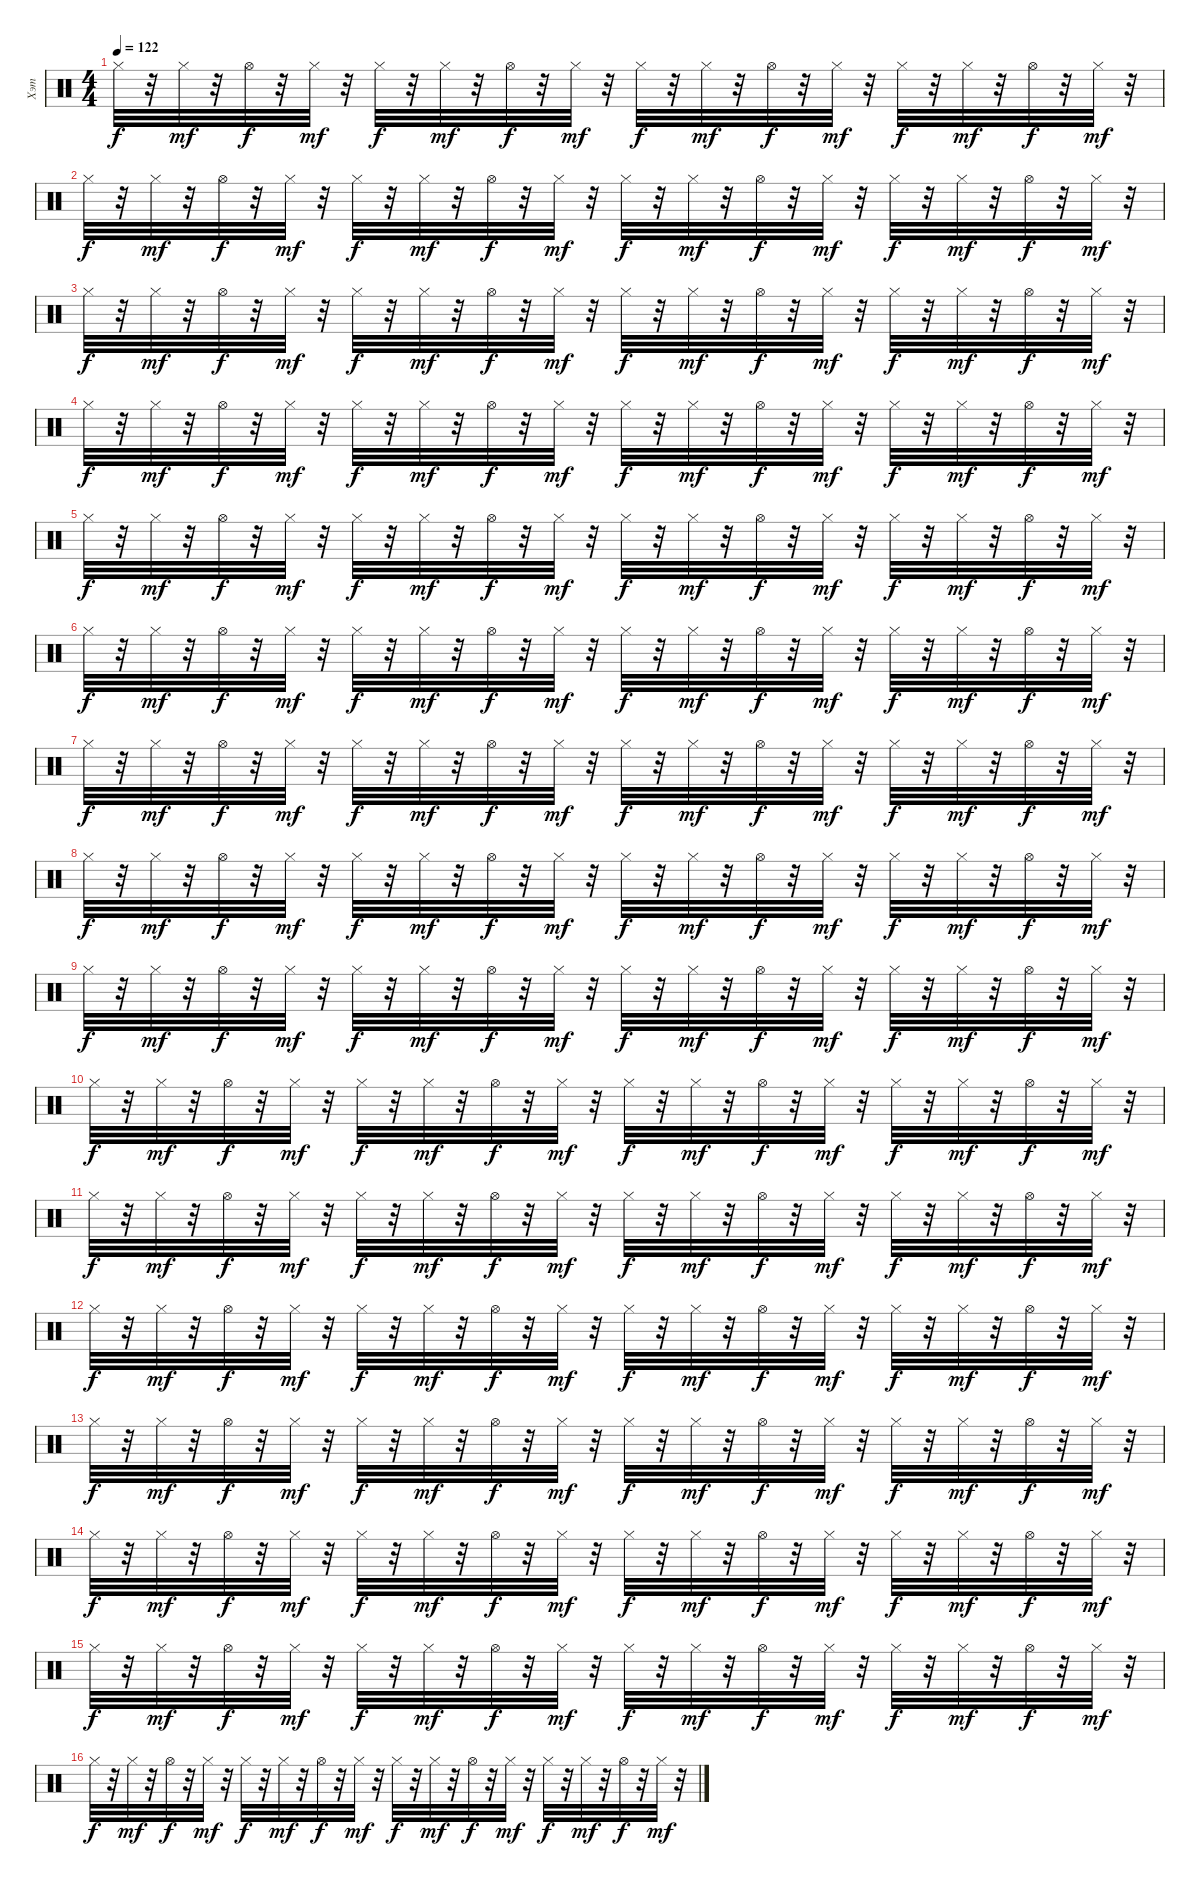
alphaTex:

\track ("Хэт" "Хэт") {instrument percussion}
\staff {score}
\articulation defaults
\ts (4 4)
\tempo 122
\clef neutral
\ks c "Hi-Hat (closed)".32{dy f}
r.32 "Hi-Hat (closed)".32{dy mf} r.32 "Hi-Hat (open)".32{dy f} r.32 "Hi-Hat (closed)".32{dy mf} r.32 "Hi-Hat (closed)".32{dy f} r.32 "Hi-Hat (closed)".32{dy mf} r.32 "Hi-Hat (open)".32{dy f} r.32 "Hi-Hat (closed)".32{dy mf} r.32 "Hi-Hat (closed)".32{dy f} r.32 "Hi-Hat (closed)".32{dy mf} r.32 "Hi-Hat (open)".32{dy f} r.32 "Hi-Hat (closed)".32{dy mf} r.32 "Hi-Hat (closed)".32{dy f} r.32 "Hi-Hat (closed)".32{dy mf} r.32 "Hi-Hat (open)".32{dy f} r.32 "Hi-Hat (closed)".32{dy mf} r.32 |
"Hi-Hat (closed)".32{dy f} r.32 "Hi-Hat (closed)".32{dy mf} r.32 "Hi-Hat (open)".32{dy f} r.32 "Hi-Hat (closed)".32{dy mf} r.32 "Hi-Hat (closed)".32{dy f} r.32 "Hi-Hat (closed)".32{dy mf} r.32 "Hi-Hat (open)".32{dy f} r.32 "Hi-Hat (closed)".32{dy mf} r.32 "Hi-Hat (closed)".32{dy f} r.32 "Hi-Hat (closed)".32{dy mf} r.32 "Hi-Hat (open)".32{dy f} r.32 "Hi-Hat (closed)".32{dy mf} r.32 "Hi-Hat (closed)".32{dy f} r.32 "Hi-Hat (closed)".32{dy mf} r.32 "Hi-Hat (open)".32{dy f} r.32 "Hi-Hat (closed)".32{dy mf} r.32 |
"Hi-Hat (closed)".32{dy f} r.32 "Hi-Hat (closed)".32{dy mf} r.32 "Hi-Hat (open)".32{dy f} r.32 "Hi-Hat (closed)".32{dy mf} r.32 "Hi-Hat (closed)".32{dy f} r.32 "Hi-Hat (closed)".32{dy mf} r.32 "Hi-Hat (open)".32{dy f} r.32 "Hi-Hat (closed)".32{dy mf} r.32 "Hi-Hat (closed)".32{dy f} r.32 "Hi-Hat (closed)".32{dy mf} r.32 "Hi-Hat (open)".32{dy f} r.32 "Hi-Hat (closed)".32{dy mf} r.32 "Hi-Hat (closed)".32{dy f} r.32 "Hi-Hat (closed)".32{dy mf} r.32 "Hi-Hat (open)".32{dy f} r.32 "Hi-Hat (closed)".32{dy mf} r.32 |
"Hi-Hat (closed)".32{dy f} r.32 "Hi-Hat (closed)".32{dy mf} r.32 "Hi-Hat (open)".32{dy f} r.32 "Hi-Hat (closed)".32{dy mf} r.32 "Hi-Hat (closed)".32{dy f} r.32 "Hi-Hat (closed)".32{dy mf} r.32 "Hi-Hat (open)".32{dy f} r.32 "Hi-Hat (closed)".32{dy mf} r.32 "Hi-Hat (closed)".32{dy f} r.32 "Hi-Hat (closed)".32{dy mf} r.32 "Hi-Hat (open)".32{dy f} r.32 "Hi-Hat (closed)".32{dy mf} r.32 "Hi-Hat (closed)".32{dy f} r.32 "Hi-Hat (closed)".32{dy mf} r.32 "Hi-Hat (open)".32{dy f} r.32 "Hi-Hat (closed)".32{dy mf} r.32 |
"Hi-Hat (closed)".32{dy f} r.32 "Hi-Hat (closed)".32{dy mf} r.32 "Hi-Hat (open)".32{dy f} r.32 "Hi-Hat (closed)".32{dy mf} r.32 "Hi-Hat (closed)".32{dy f} r.32 "Hi-Hat (closed)".32{dy mf} r.32 "Hi-Hat (open)".32{dy f} r.32 "Hi-Hat (closed)".32{dy mf} r.32 "Hi-Hat (closed)".32{dy f} r.32 "Hi-Hat (closed)".32{dy mf} r.32 "Hi-Hat (open)".32{dy f} r.32 "Hi-Hat (closed)".32{dy mf} r.32 "Hi-Hat (closed)".32{dy f} r.32 "Hi-Hat (closed)".32{dy mf} r.32 "Hi-Hat (open)".32{dy f} r.32 "Hi-Hat (closed)".32{dy mf} r.32 |
"Hi-Hat (closed)".32{dy f} r.32 "Hi-Hat (closed)".32{dy mf} r.32 "Hi-Hat (open)".32{dy f} r.32 "Hi-Hat (closed)".32{dy mf} r.32 "Hi-Hat (closed)".32{dy f} r.32 "Hi-Hat (closed)".32{dy mf} r.32 "Hi-Hat (open)".32{dy f} r.32 "Hi-Hat (closed)".32{dy mf} r.32 "Hi-Hat (closed)".32{dy f} r.32 "Hi-Hat (closed)".32{dy mf} r.32 "Hi-Hat (open)".32{dy f} r.32 "Hi-Hat (closed)".32{dy mf} r.32 "Hi-Hat (closed)".32{dy f} r.32 "Hi-Hat (closed)".32{dy mf} r.32 "Hi-Hat (open)".32{dy f} r.32 "Hi-Hat (closed)".32{dy mf} r.32 |
"Hi-Hat (closed)".32{dy f} r.32 "Hi-Hat (closed)".32{dy mf} r.32 "Hi-Hat (open)".32{dy f} r.32 "Hi-Hat (closed)".32{dy mf} r.32 "Hi-Hat (closed)".32{dy f} r.32 "Hi-Hat (closed)".32{dy mf} r.32 "Hi-Hat (open)".32{dy f} r.32 "Hi-Hat (closed)".32{dy mf} r.32 "Hi-Hat (closed)".32{dy f} r.32 "Hi-Hat (closed)".32{dy mf} r.32 "Hi-Hat (open)".32{dy f} r.32 "Hi-Hat (closed)".32{dy mf} r.32 "Hi-Hat (closed)".32{dy f} r.32 "Hi-Hat (closed)".32{dy mf} r.32 "Hi-Hat (open)".32{dy f} r.32 "Hi-Hat (closed)".32{dy mf} r.32 |
"Hi-Hat (closed)".32{dy f} r.32 "Hi-Hat (closed)".32{dy mf} r.32 "Hi-Hat (open)".32{dy f} r.32 "Hi-Hat (closed)".32{dy mf} r.32 "Hi-Hat (closed)".32{dy f} r.32 "Hi-Hat (closed)".32{dy mf} r.32 "Hi-Hat (open)".32{dy f} r.32 "Hi-Hat (closed)".32{dy mf} r.32 "Hi-Hat (closed)".32{dy f} r.32 "Hi-Hat (closed)".32{dy mf} r.32 "Hi-Hat (open)".32{dy f} r.32 "Hi-Hat (closed)".32{dy mf} r.32 "Hi-Hat (closed)".32{dy f} r.32 "Hi-Hat (closed)".32{dy mf} r.32 "Hi-Hat (open)".32{dy f} r.32 "Hi-Hat (closed)".32{dy mf} r.32 |
"Hi-Hat (closed)".32{dy f} r.32 "Hi-Hat (closed)".32{dy mf} r.32 "Hi-Hat (open)".32{dy f} r.32 "Hi-Hat (closed)".32{dy mf} r.32 "Hi-Hat (closed)".32{dy f} r.32 "Hi-Hat (closed)".32{dy mf} r.32 "Hi-Hat (open)".32{dy f} r.32 "Hi-Hat (closed)".32{dy mf} r.32 "Hi-Hat (closed)".32{dy f} r.32 "Hi-Hat (closed)".32{dy mf} r.32 "Hi-Hat (open)".32{dy f} r.32 "Hi-Hat (closed)".32{dy mf} r.32 "Hi-Hat (closed)".32{dy f} r.32 "Hi-Hat (closed)".32{dy mf} r.32 "Hi-Hat (open)".32{dy f} r.32 "Hi-Hat (closed)".32{dy mf} r.32 |
"Hi-Hat (closed)".32{dy f} r.32 "Hi-Hat (closed)".32{dy mf} r.32 "Hi-Hat (open)".32{dy f} r.32 "Hi-Hat (closed)".32{dy mf} r.32 "Hi-Hat (closed)".32{dy f} r.32 "Hi-Hat (closed)".32{dy mf} r.32 "Hi-Hat (open)".32{dy f} r.32 "Hi-Hat (closed)".32{dy mf} r.32 "Hi-Hat (closed)".32{dy f} r.32 "Hi-Hat (closed)".32{dy mf} r.32 "Hi-Hat (open)".32{dy f} r.32 "Hi-Hat (closed)".32{dy mf} r.32 "Hi-Hat (closed)".32{dy f} r.32 "Hi-Hat (closed)".32{dy mf} r.32 "Hi-Hat (open)".32{dy f} r.32 "Hi-Hat (closed)".32{dy mf} r.32 |
"Hi-Hat (closed)".32{dy f} r.32 "Hi-Hat (closed)".32{dy mf} r.32 "Hi-Hat (open)".32{dy f} r.32 "Hi-Hat (closed)".32{dy mf} r.32 "Hi-Hat (closed)".32{dy f} r.32 "Hi-Hat (closed)".32{dy mf} r.32 "Hi-Hat (open)".32{dy f} r.32 "Hi-Hat (closed)".32{dy mf} r.32 "Hi-Hat (closed)".32{dy f} r.32 "Hi-Hat (closed)".32{dy mf} r.32 "Hi-Hat (open)".32{dy f} r.32 "Hi-Hat (closed)".32{dy mf} r.32 "Hi-Hat (closed)".32{dy f} r.32 "Hi-Hat (closed)".32{dy mf} r.32 "Hi-Hat (open)".32{dy f} r.32 "Hi-Hat (closed)".32{dy mf} r.32 |
"Hi-Hat (closed)".32{dy f} r.32 "Hi-Hat (closed)".32{dy mf} r.32 "Hi-Hat (open)".32{dy f} r.32 "Hi-Hat (closed)".32{dy mf} r.32 "Hi-Hat (closed)".32{dy f} r.32 "Hi-Hat (closed)".32{dy mf} r.32 "Hi-Hat (open)".32{dy f} r.32 "Hi-Hat (closed)".32{dy mf} r.32 "Hi-Hat (closed)".32{dy f} r.32 "Hi-Hat (closed)".32{dy mf} r.32 "Hi-Hat (open)".32{dy f} r.32 "Hi-Hat (closed)".32{dy mf} r.32 "Hi-Hat (closed)".32{dy f} r.32 "Hi-Hat (closed)".32{dy mf} r.32 "Hi-Hat (open)".32{dy f} r.32 "Hi-Hat (closed)".32{dy mf} r.32 |
"Hi-Hat (closed)".32{dy f} r.32 "Hi-Hat (closed)".32{dy mf} r.32 "Hi-Hat (open)".32{dy f} r.32 "Hi-Hat (closed)".32{dy mf} r.32 "Hi-Hat (closed)".32{dy f} r.32 "Hi-Hat (closed)".32{dy mf} r.32 "Hi-Hat (open)".32{dy f} r.32 "Hi-Hat (closed)".32{dy mf} r.32 "Hi-Hat (closed)".32{dy f} r.32 "Hi-Hat (closed)".32{dy mf} r.32 "Hi-Hat (open)".32{dy f} r.32 "Hi-Hat (closed)".32{dy mf} r.32 "Hi-Hat (closed)".32{dy f} r.32 "Hi-Hat (closed)".32{dy mf} r.32 "Hi-Hat (open)".32{dy f} r.32 "Hi-Hat (closed)".32{dy mf} r.32 |
"Hi-Hat (closed)".32{dy f} r.32 "Hi-Hat (closed)".32{dy mf} r.32 "Hi-Hat (open)".32{dy f} r.32 "Hi-Hat (closed)".32{dy mf} r.32 "Hi-Hat (closed)".32{dy f} r.32 "Hi-Hat (closed)".32{dy mf} r.32 "Hi-Hat (open)".32{dy f} r.32 "Hi-Hat (closed)".32{dy mf} r.32 "Hi-Hat (closed)".32{dy f} r.32 "Hi-Hat (closed)".32{dy mf} r.32 "Hi-Hat (open)".32{dy f} r.32 "Hi-Hat (closed)".32{dy mf} r.32 "Hi-Hat (closed)".32{dy f} r.32 "Hi-Hat (closed)".32{dy mf} r.32 "Hi-Hat (open)".32{dy f} r.32 "Hi-Hat (closed)".32{dy mf} r.32 |
"Hi-Hat (closed)".32{dy f} r.32 "Hi-Hat (closed)".32{dy mf} r.32 "Hi-Hat (open)".32{dy f} r.32 "Hi-Hat (closed)".32{dy mf} r.32 "Hi-Hat (closed)".32{dy f} r.32 "Hi-Hat (closed)".32{dy mf} r.32 "Hi-Hat (open)".32{dy f} r.32 "Hi-Hat (closed)".32{dy mf} r.32 "Hi-Hat (closed)".32{dy f} r.32 "Hi-Hat (closed)".32{dy mf} r.32 "Hi-Hat (open)".32{dy f} r.32 "Hi-Hat (closed)".32{dy mf} r.32 "Hi-Hat (closed)".32{dy f} r.32 "Hi-Hat (closed)".32{dy mf} r.32 "Hi-Hat (open)".32{dy f} r.32 "Hi-Hat (closed)".32{dy mf} r.32 |
"Hi-Hat (closed)".32{dy f} r.32 "Hi-Hat (closed)".32{dy mf} r.32 "Hi-Hat (open)".32{dy f} r.32 "Hi-Hat (closed)".32{dy mf} r.32 "Hi-Hat (closed)".32{dy f} r.32 "Hi-Hat (closed)".32{dy mf} r.32 "Hi-Hat (open)".32{dy f} r.32 "Hi-Hat (closed)".32{dy mf} r.32 "Hi-Hat (closed)".32{dy f} r.32 "Hi-Hat (closed)".32{dy mf} r.32 "Hi-Hat (open)".32{dy f} r.32 "Hi-Hat (closed)".32{dy mf} r.32 "Hi-Hat (closed)".32{dy f} r.32 "Hi-Hat (closed)".32{dy mf} r.32 "Hi-Hat (open)".32{dy f} r.32 "Hi-Hat (closed)".32{dy mf} r.32
